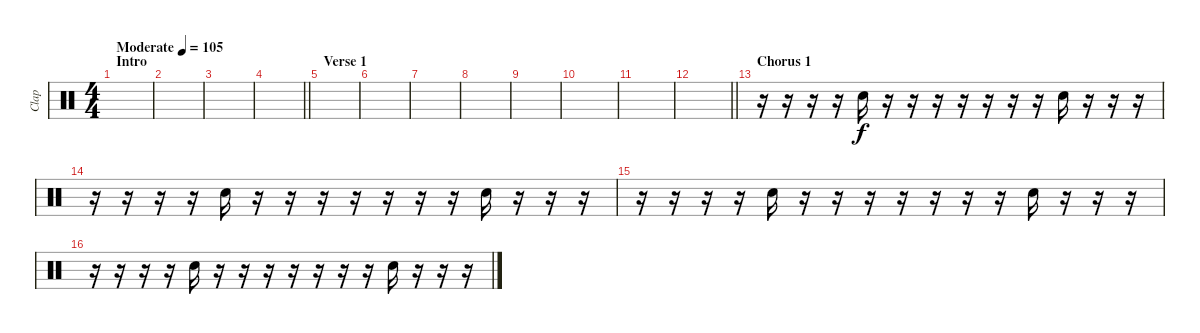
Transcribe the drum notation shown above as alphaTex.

\track ("Clap" "Clap") {instrument percussion}
\staff {score}
\articulation defaults
\ts (4 4)
\section ("" "Intro")
\tempo (105 "Moderate")
\clef neutral
\ks c
|
|
|
\barLineRight lightlight
|
\section ("" "Verse 1")
|
|
|
|
|
|
|
\barLineRight lightlight
|
\section ("" "Chorus 1")
r.16 r.16 r.16 r.16 "Hand Clap (hit)".16 r.16 r.16 r.16 r.16 r.16 r.16 r.16 "Hand Clap (hit)".16 r.16 r.16 r.16 |
r.16 r.16 r.16 r.16 "Hand Clap (hit)".16 r.16 r.16 r.16 r.16 r.16 r.16 r.16 "Hand Clap (hit)".16 r.16 r.16 r.16 |
r.16 r.16 r.16 r.16 "Hand Clap (hit)".16 r.16 r.16 r.16 r.16 r.16 r.16 r.16 "Hand Clap (hit)".16 r.16 r.16 r.16 |
r.16 r.16 r.16 r.16 "Hand Clap (hit)".16 r.16 r.16 r.16 r.16 r.16 r.16 r.16 "Hand Clap (hit)".16 r.16 r.16 r.16
